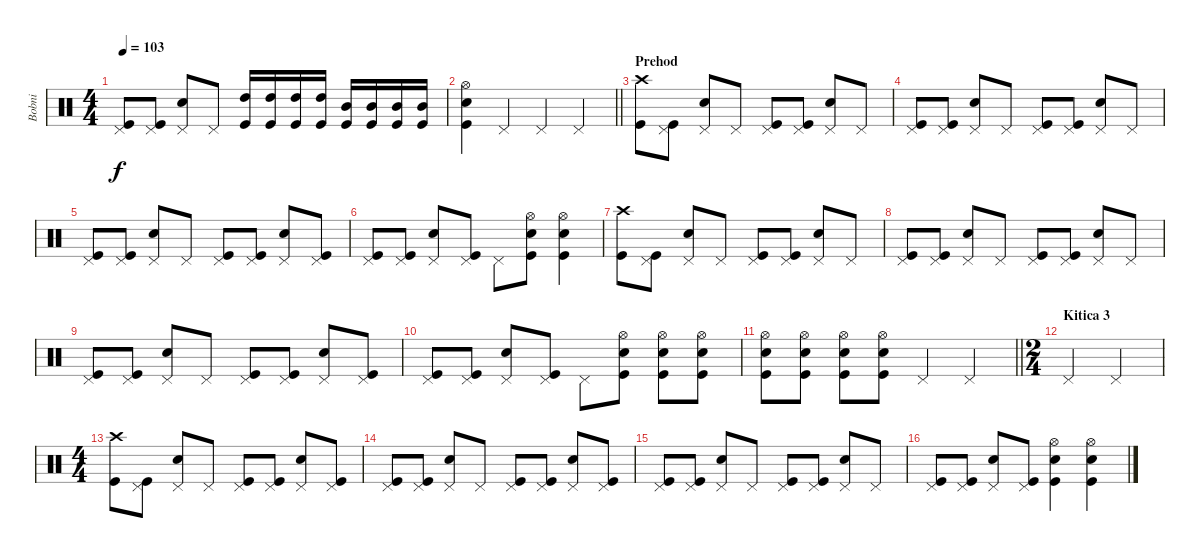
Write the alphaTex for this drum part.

\track ("Bobni" "Bobni") {instrument percussion}
\staff {score}
\articulation defaults
\ts (4 4)
\tempo 103
\clef neutral
\ks aminor
("Pedal Hi-Hat (hit)" "Kick (hit)").8{dy f} ("Pedal Hi-Hat (hit)" "Kick (hit)").8 ("Pedal Hi-Hat (hit)" "Snare (hit) 2").8 "Pedal Hi-Hat (hit)".8 ("High Tom (hit)" "Kick (hit)").16 ("High Tom (hit)" "Kick (hit)").16 ("High Tom (hit)" "Kick (hit)").16 ("High Tom (hit)" "Kick (hit)").16 ("Mid Tom (hit)" "Kick (hit)").16 ("Mid Tom (hit)" "Kick (hit)").16 ("Mid Tom (hit)" "Kick (hit)").16 ("Mid Tom (hit)" "Kick (hit)").16 |
\barLineRight lightlight
("Hi-Hat (open)" "Snare (hit) 2" "Kick (hit)").4 "Pedal Hi-Hat (hit)".4 "Pedal Hi-Hat (hit)".4 "Pedal Hi-Hat (hit)".4 |
\section ("" "Prehod")
("Crash high (hit)" "Kick (hit)").8 ("Pedal Hi-Hat (hit)" "Kick (hit)").8 ("Pedal Hi-Hat (hit)" "Snare (hit) 2").8 "Pedal Hi-Hat (hit)".8 ("Pedal Hi-Hat (hit)" "Kick (hit)").8 ("Pedal Hi-Hat (hit)" "Kick (hit)").8 ("Pedal Hi-Hat (hit)" "Snare (hit) 2").8 "Pedal Hi-Hat (hit)".8 |
("Pedal Hi-Hat (hit)" "Kick (hit)").8 ("Pedal Hi-Hat (hit)" "Kick (hit)").8 ("Pedal Hi-Hat (hit)" "Snare (hit) 2").8 "Pedal Hi-Hat (hit)".8 ("Pedal Hi-Hat (hit)" "Kick (hit)").8 ("Pedal Hi-Hat (hit)" "Kick (hit)").8 ("Pedal Hi-Hat (hit)" "Snare (hit) 2").8 "Pedal Hi-Hat (hit)".8 |
("Pedal Hi-Hat (hit)" "Kick (hit)").8 ("Pedal Hi-Hat (hit)" "Kick (hit)").8 ("Pedal Hi-Hat (hit)" "Snare (hit) 2").8 "Pedal Hi-Hat (hit)".8 ("Pedal Hi-Hat (hit)" "Kick (hit)").8 ("Pedal Hi-Hat (hit)" "Kick (hit)").8 ("Pedal Hi-Hat (hit)" "Snare (hit) 2").8 ("Pedal Hi-Hat (hit)" "Kick (hit)").8 |
("Pedal Hi-Hat (hit)" "Kick (hit)").8 ("Pedal Hi-Hat (hit)" "Kick (hit)").8 ("Pedal Hi-Hat (hit)" "Snare (hit) 2").8 ("Pedal Hi-Hat (hit)" "Kick (hit)").8 "Pedal Hi-Hat (hit)".8 ("Hi-Hat (open)" "Snare (hit) 2" "Kick (hit)").8 ("Hi-Hat (open)" "Snare (hit) 2" "Kick (hit)").4 |
("Crash high (hit)" "Kick (hit)").8 ("Pedal Hi-Hat (hit)" "Kick (hit)").8 ("Pedal Hi-Hat (hit)" "Snare (hit) 2").8 "Pedal Hi-Hat (hit)".8 ("Pedal Hi-Hat (hit)" "Kick (hit)").8 ("Pedal Hi-Hat (hit)" "Kick (hit)").8 ("Pedal Hi-Hat (hit)" "Snare (hit) 2").8 "Pedal Hi-Hat (hit)".8 |
("Pedal Hi-Hat (hit)" "Kick (hit)").8 ("Pedal Hi-Hat (hit)" "Kick (hit)").8 ("Pedal Hi-Hat (hit)" "Snare (hit) 2").8 "Pedal Hi-Hat (hit)".8 ("Pedal Hi-Hat (hit)" "Kick (hit)").8 ("Pedal Hi-Hat (hit)" "Kick (hit)").8 ("Pedal Hi-Hat (hit)" "Snare (hit) 2").8 "Pedal Hi-Hat (hit)".8 |
("Pedal Hi-Hat (hit)" "Kick (hit)").8 ("Pedal Hi-Hat (hit)" "Kick (hit)").8 ("Pedal Hi-Hat (hit)" "Snare (hit) 2").8 "Pedal Hi-Hat (hit)".8 ("Pedal Hi-Hat (hit)" "Kick (hit)").8 ("Pedal Hi-Hat (hit)" "Kick (hit)").8 ("Pedal Hi-Hat (hit)" "Snare (hit) 2").8 ("Pedal Hi-Hat (hit)" "Kick (hit)").8 |
("Pedal Hi-Hat (hit)" "Kick (hit)").8 ("Pedal Hi-Hat (hit)" "Kick (hit)").8 ("Pedal Hi-Hat (hit)" "Snare (hit) 2").8 ("Pedal Hi-Hat (hit)" "Kick (hit)").8 "Pedal Hi-Hat (hit)".8 ("Hi-Hat (open)" "Snare (hit) 2" "Kick (hit)").8 ("Hi-Hat (open)" "Snare (hit) 2" "Kick (hit)").8 ("Hi-Hat (open)" "Snare (hit) 2" "Kick (hit)").8 |
\barLineRight lightlight
("Hi-Hat (open)" "Snare (hit) 2" "Kick (hit)").8 ("Hi-Hat (open)" "Snare (hit) 2" "Kick (hit)").8 ("Hi-Hat (open)" "Snare (hit) 2" "Kick (hit)").8 ("Hi-Hat (open)" "Snare (hit) 2" "Kick (hit)").8 "Pedal Hi-Hat (hit)".4 "Pedal Hi-Hat (hit)".4 |
\ts (2 4)
\section ("" "Kitica 3")
"Pedal Hi-Hat (hit)".4 "Pedal Hi-Hat (hit)".4 |
\ts (4 4)
("Crash high (hit)" "Kick (hit)").8 ("Pedal Hi-Hat (hit)" "Kick (hit)").8 ("Pedal Hi-Hat (hit)" "Snare (hit) 2").8 "Pedal Hi-Hat (hit)".8 ("Pedal Hi-Hat (hit)" "Kick (hit)").8 ("Pedal Hi-Hat (hit)" "Kick (hit)").8 ("Pedal Hi-Hat (hit)" "Snare (hit) 2").8 ("Pedal Hi-Hat (hit)" "Kick (hit)").8 |
("Pedal Hi-Hat (hit)" "Kick (hit)").8 ("Pedal Hi-Hat (hit)" "Kick (hit)").8 ("Pedal Hi-Hat (hit)" "Snare (hit) 2").8 "Pedal Hi-Hat (hit)".8 ("Pedal Hi-Hat (hit)" "Kick (hit)").8 ("Pedal Hi-Hat (hit)" "Kick (hit)").8 ("Pedal Hi-Hat (hit)" "Snare (hit) 2").8 ("Pedal Hi-Hat (hit)" "Kick (hit)").8 |
("Pedal Hi-Hat (hit)" "Kick (hit)").8 ("Pedal Hi-Hat (hit)" "Kick (hit)").8 ("Pedal Hi-Hat (hit)" "Snare (hit) 2").8 "Pedal Hi-Hat (hit)".8 ("Pedal Hi-Hat (hit)" "Kick (hit)").8 ("Pedal Hi-Hat (hit)" "Kick (hit)").8 ("Pedal Hi-Hat (hit)" "Snare (hit) 2").8 "Pedal Hi-Hat (hit)".8 |
("Pedal Hi-Hat (hit)" "Kick (hit)").8 ("Pedal Hi-Hat (hit)" "Kick (hit)").8 ("Pedal Hi-Hat (hit)" "Snare (hit) 2").8 ("Pedal Hi-Hat (hit)" "Kick (hit)").8 ("Hi-Hat (open)" "Snare (hit) 2" "Kick (hit)").4 ("Hi-Hat (open)" "Snare (hit) 2" "Kick (hit)").4
